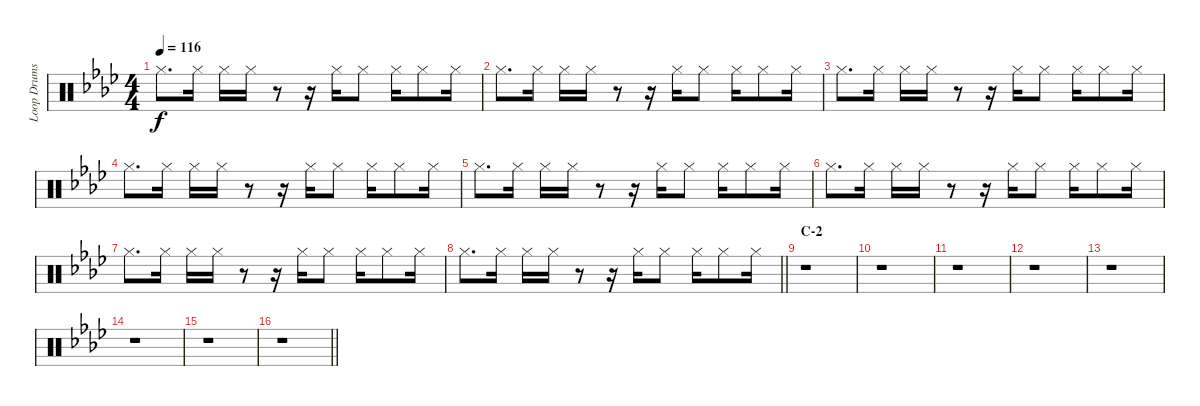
\track ("Loop Drums II" "Loop Drums") {instrument percussion}
\staff {score}
\articulation defaults
\ts (4 4)
\tempo 116
\clef neutral
\ks ab "Hi-Hat (closed)".8{d dy f} "Hi-Hat (closed)".16 "Hi-Hat (closed)".16 "Hi-Hat (closed)".16
r.8 r.16 "Hi-Hat (closed)".16 "Hi-Hat (closed)".8 "Hi-Hat (closed)".16 "Hi-Hat (closed)".8 "Hi-Hat (closed)".16 |
"Hi-Hat (closed)".8{d} "Hi-Hat (closed)".16 "Hi-Hat (closed)".16 "Hi-Hat (closed)".16 r.8 r.16 "Hi-Hat (closed)".16 "Hi-Hat (closed)".8 "Hi-Hat (closed)".16 "Hi-Hat (closed)".8 "Hi-Hat (closed)".16 |
"Hi-Hat (closed)".8{d} "Hi-Hat (closed)".16 "Hi-Hat (closed)".16 "Hi-Hat (closed)".16 r.8 r.16 "Hi-Hat (closed)".16 "Hi-Hat (closed)".8 "Hi-Hat (closed)".16 "Hi-Hat (closed)".8 "Hi-Hat (closed)".16 |
"Hi-Hat (closed)".8{d} "Hi-Hat (closed)".16 "Hi-Hat (closed)".16 "Hi-Hat (closed)".16 r.8 r.16 "Hi-Hat (closed)".16 "Hi-Hat (closed)".8 "Hi-Hat (closed)".16 "Hi-Hat (closed)".8 "Hi-Hat (closed)".16 |
"Hi-Hat (closed)".8{d} "Hi-Hat (closed)".16 "Hi-Hat (closed)".16 "Hi-Hat (closed)".16 r.8 r.16 "Hi-Hat (closed)".16 "Hi-Hat (closed)".8 "Hi-Hat (closed)".16 "Hi-Hat (closed)".8 "Hi-Hat (closed)".16 |
"Hi-Hat (closed)".8{d} "Hi-Hat (closed)".16 "Hi-Hat (closed)".16 "Hi-Hat (closed)".16 r.8 r.16 "Hi-Hat (closed)".16 "Hi-Hat (closed)".8 "Hi-Hat (closed)".16 "Hi-Hat (closed)".8 "Hi-Hat (closed)".16 |
"Hi-Hat (closed)".8{d} "Hi-Hat (closed)".16 "Hi-Hat (closed)".16 "Hi-Hat (closed)".16 r.8 r.16 "Hi-Hat (closed)".16 "Hi-Hat (closed)".8 "Hi-Hat (closed)".16 "Hi-Hat (closed)".8 "Hi-Hat (closed)".16 |
\barLineRight lightlight "Hi-Hat (closed)".8{d} "Hi-Hat (closed)".16 "Hi-Hat (closed)".16 "Hi-Hat (closed)".16
r.8 r.16 "Hi-Hat (closed)".16 "Hi-Hat (closed)".8 "Hi-Hat (closed)".16 "Hi-Hat (closed)".8 "Hi-Hat (closed)".16 |
\section ("" "C-2")
r.1 |
r.1 |
r.1 |
r.1 |
r.1 |
r.1 |
r.1 |
\barLineRight lightlight
r.1
